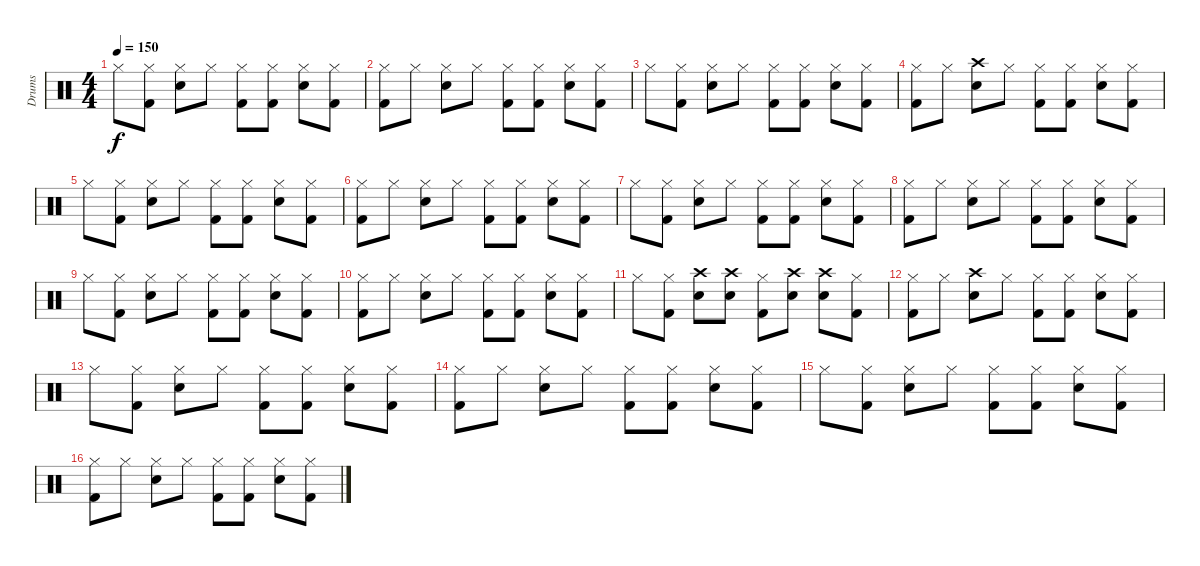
\track ("Drums" "Drums") {instrument percussion}
\staff {score}
\articulation defaults
\ts (4 4)
\tempo 150
\clef neutral
\ks c "Hi-Hat (closed)".8{dy f}
("Kick (hit) 2" "Hi-Hat (closed)").8 ("Snare (hit) 2" "Hi-Hat (closed)").8 "Hi-Hat (closed)".8 ("Kick (hit) 2" "Hi-Hat (closed)").8 ("Kick (hit) 2" "Hi-Hat (closed)").8 ("Snare (hit) 2" "Hi-Hat (closed)").8 ("Kick (hit) 2" "Hi-Hat (closed)").8 |
("Kick (hit) 2" "Hi-Hat (closed)").8 "Hi-Hat (closed)".8 ("Snare (hit) 2" "Hi-Hat (closed)").8 "Hi-Hat (closed)".8 ("Kick (hit) 2" "Hi-Hat (closed)").8 ("Kick (hit) 2" "Hi-Hat (closed)").8 ("Snare (hit) 2" "Hi-Hat (closed)").8 ("Kick (hit) 2" "Hi-Hat (closed)").8 |
"Hi-Hat (closed)".8 ("Kick (hit) 2" "Hi-Hat (closed)").8 ("Snare (hit) 2" "Hi-Hat (closed)").8 "Hi-Hat (closed)".8 ("Kick (hit) 2" "Hi-Hat (closed)").8 ("Kick (hit) 2" "Hi-Hat (closed)").8 ("Snare (hit) 2" "Hi-Hat (closed)").8 ("Kick (hit) 2" "Hi-Hat (closed)").8 |
("Kick (hit) 2" "Hi-Hat (closed)").8 "Hi-Hat (closed)".8 ("Crash high (hit)" "Snare (hit) 2").8 "Hi-Hat (closed)".8 ("Kick (hit) 2" "Hi-Hat (closed)").8 ("Kick (hit) 2" "Hi-Hat (closed)").8 ("Snare (hit) 2" "Hi-Hat (closed)").8 ("Kick (hit) 2" "Hi-Hat (closed)").8 |
"Hi-Hat (closed)".8 ("Kick (hit) 2" "Hi-Hat (closed)").8 ("Snare (hit) 2" "Hi-Hat (closed)").8 "Hi-Hat (closed)".8 ("Kick (hit) 2" "Hi-Hat (closed)").8 ("Kick (hit) 2" "Hi-Hat (closed)").8 ("Snare (hit) 2" "Hi-Hat (closed)").8 ("Kick (hit) 2" "Hi-Hat (closed)").8 |
("Kick (hit) 2" "Hi-Hat (closed)").8 "Hi-Hat (closed)".8 ("Snare (hit) 2" "Hi-Hat (closed)").8 "Hi-Hat (closed)".8 ("Kick (hit) 2" "Hi-Hat (closed)").8 ("Kick (hit) 2" "Hi-Hat (closed)").8 ("Snare (hit) 2" "Hi-Hat (closed)").8 ("Kick (hit) 2" "Hi-Hat (closed)").8 |
"Hi-Hat (closed)".8 ("Kick (hit) 2" "Hi-Hat (closed)").8 ("Snare (hit) 2" "Hi-Hat (closed)").8 "Hi-Hat (closed)".8 ("Kick (hit) 2" "Hi-Hat (closed)").8 ("Kick (hit) 2" "Hi-Hat (closed)").8 ("Snare (hit) 2" "Hi-Hat (closed)").8 ("Kick (hit) 2" "Hi-Hat (closed)").8 |
("Kick (hit) 2" "Hi-Hat (closed)").8 "Hi-Hat (closed)".8 ("Snare (hit) 2" "Hi-Hat (closed)").8 "Hi-Hat (closed)".8 ("Kick (hit) 2" "Hi-Hat (closed)").8 ("Kick (hit) 2" "Hi-Hat (closed)").8 ("Snare (hit) 2" "Hi-Hat (closed)").8 ("Kick (hit) 2" "Hi-Hat (closed)").8 |
"Hi-Hat (closed)".8 ("Kick (hit) 2" "Hi-Hat (closed)").8 ("Snare (hit) 2" "Hi-Hat (closed)").8 "Hi-Hat (closed)".8 ("Kick (hit) 2" "Hi-Hat (closed)").8 ("Kick (hit) 2" "Hi-Hat (closed)").8 ("Snare (hit) 2" "Hi-Hat (closed)").8 ("Kick (hit) 2" "Hi-Hat (closed)").8 |
("Kick (hit) 2" "Hi-Hat (closed)").8 "Hi-Hat (closed)".8 ("Snare (hit) 2" "Hi-Hat (closed)").8 "Hi-Hat (closed)".8 ("Kick (hit) 2" "Hi-Hat (closed)").8 ("Kick (hit) 2" "Hi-Hat (closed)").8 ("Snare (hit) 2" "Hi-Hat (closed)").8 ("Kick (hit) 2" "Hi-Hat (closed)").8 |
"Hi-Hat (closed)".8 ("Kick (hit) 2" "Hi-Hat (closed)").8 ("Crash high (hit)" "Snare (hit) 2").8 ("Crash high (hit)" "Snare (hit) 2").8 ("Kick (hit) 2" "Hi-Hat (closed)").8 ("Snare (hit) 2" "Crash high (hit)").8 ("Crash high (hit)" "Snare (hit) 2").8 ("Kick (hit) 2" "Hi-Hat (closed)").8 |
("Kick (hit) 2" "Hi-Hat (closed)").8 "Hi-Hat (closed)".8 ("Crash high (hit)" "Snare (hit) 2").8 "Hi-Hat (closed)".8 ("Kick (hit) 2" "Hi-Hat (closed)").8 ("Kick (hit) 2" "Hi-Hat (closed)").8 ("Snare (hit) 2" "Hi-Hat (closed)").8 ("Kick (hit) 2" "Hi-Hat (closed)").8 |
"Hi-Hat (closed)".8 ("Kick (hit) 2" "Hi-Hat (closed)").8 ("Snare (hit) 2" "Hi-Hat (closed)").8 "Hi-Hat (closed)".8 ("Kick (hit) 2" "Hi-Hat (closed)").8 ("Kick (hit) 2" "Hi-Hat (closed)").8 ("Snare (hit) 2" "Hi-Hat (closed)").8 ("Kick (hit) 2" "Hi-Hat (closed)").8 |
("Kick (hit) 2" "Hi-Hat (closed)").8 "Hi-Hat (closed)".8 ("Snare (hit) 2" "Hi-Hat (closed)").8 "Hi-Hat (closed)".8 ("Kick (hit) 2" "Hi-Hat (closed)").8 ("Kick (hit) 2" "Hi-Hat (closed)").8 ("Snare (hit) 2" "Hi-Hat (closed)").8 ("Kick (hit) 2" "Hi-Hat (closed)").8 |
"Hi-Hat (closed)".8 ("Kick (hit) 2" "Hi-Hat (closed)").8 ("Snare (hit) 2" "Hi-Hat (closed)").8 "Hi-Hat (closed)".8 ("Kick (hit) 2" "Hi-Hat (closed)").8 ("Kick (hit) 2" "Hi-Hat (closed)").8 ("Snare (hit) 2" "Hi-Hat (closed)").8 ("Kick (hit) 2" "Hi-Hat (closed)").8 |
("Kick (hit) 2" "Hi-Hat (closed)").8 "Hi-Hat (closed)".8 ("Snare (hit) 2" "Hi-Hat (closed)").8 "Hi-Hat (closed)".8 ("Kick (hit) 2" "Hi-Hat (closed)").8 ("Kick (hit) 2" "Hi-Hat (closed)").8 ("Snare (hit) 2" "Hi-Hat (closed)").8 ("Kick (hit) 2" "Hi-Hat (closed)").8
